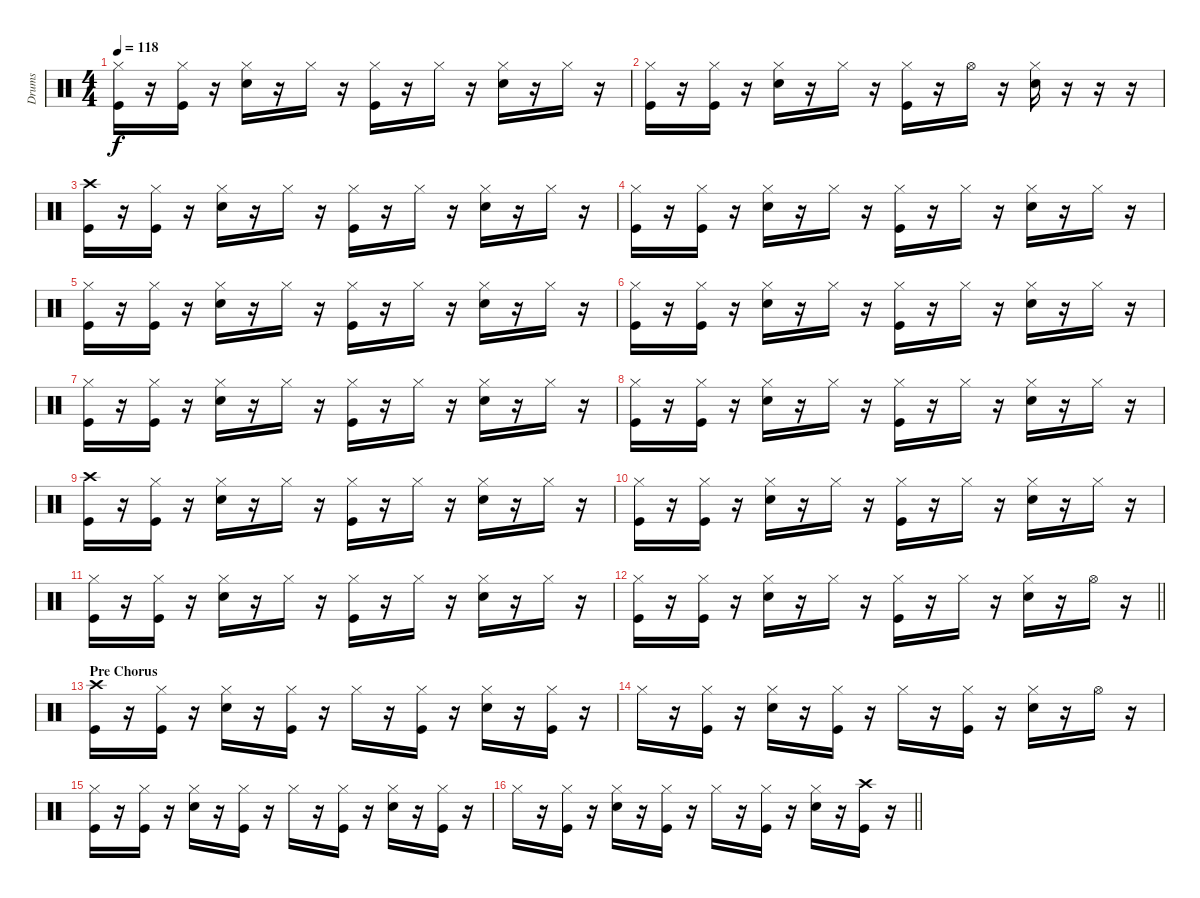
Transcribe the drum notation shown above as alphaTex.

\track ("Drums" "Drums") {instrument percussion}
\staff {score}
\articulation defaults
\ts (4 4)
\tempo 118
\clef neutral
\ks c
("Hi-Hat (closed)" "Kick (hit)").16{dy f} r.16 ("Hi-Hat (closed)" "Kick (hit)").16 r.16 ("Hi-Hat (closed)" "Snare (hit) 2").16 r.16 "Hi-Hat (closed)".16 r.16 ("Hi-Hat (closed)" "Kick (hit)").16 r.16 "Hi-Hat (closed)".16 r.16 ("Hi-Hat (closed)" "Snare (hit) 2").16 r.16 "Hi-Hat (closed)".16 r.16 |
("Hi-Hat (closed)" "Kick (hit)").16 r.16 ("Hi-Hat (closed)" "Kick (hit)").16 r.16 ("Hi-Hat (closed)" "Snare (hit) 2").16 r.16 "Hi-Hat (closed)".16 r.16 ("Hi-Hat (closed)" "Kick (hit)").16 r.16 "Hi-Hat (open)".16 r.16 ("Hi-Hat (closed)" "Snare (hit) 2").16 r.16 r.16 r.16 |
("Crash high (hit)" "Kick (hit)").16 r.16 ("Hi-Hat (closed)" "Kick (hit)").16 r.16 ("Hi-Hat (closed)" "Snare (hit) 2").16 r.16 "Hi-Hat (closed)".16 r.16 ("Hi-Hat (closed)" "Kick (hit)").16 r.16 "Hi-Hat (closed)".16 r.16 ("Hi-Hat (closed)" "Snare (hit) 2").16 r.16 "Hi-Hat (closed)".16 r.16 |
("Hi-Hat (closed)" "Kick (hit)").16 r.16 ("Hi-Hat (closed)" "Kick (hit)").16 r.16 ("Hi-Hat (closed)" "Snare (hit) 2").16 r.16 "Hi-Hat (closed)".16 r.16 ("Hi-Hat (closed)" "Kick (hit)").16 r.16 "Hi-Hat (closed)".16 r.16 ("Hi-Hat (closed)" "Snare (hit) 2").16 r.16 "Hi-Hat (closed)".16 r.16 |
("Hi-Hat (closed)" "Kick (hit)").16 r.16 ("Hi-Hat (closed)" "Kick (hit)").16 r.16 ("Hi-Hat (closed)" "Snare (hit) 2").16 r.16 "Hi-Hat (closed)".16 r.16 ("Hi-Hat (closed)" "Kick (hit)").16 r.16 "Hi-Hat (closed)".16 r.16 ("Hi-Hat (closed)" "Snare (hit) 2").16 r.16 "Hi-Hat (closed)".16 r.16 |
("Hi-Hat (closed)" "Kick (hit)").16 r.16 ("Hi-Hat (closed)" "Kick (hit)").16 r.16 ("Hi-Hat (closed)" "Snare (hit) 2").16 r.16 "Hi-Hat (closed)".16 r.16 ("Hi-Hat (closed)" "Kick (hit)").16 r.16 "Hi-Hat (closed)".16 r.16 ("Hi-Hat (closed)" "Snare (hit) 2").16 r.16 "Hi-Hat (closed)".16 r.16 |
("Hi-Hat (closed)" "Kick (hit)").16 r.16 ("Hi-Hat (closed)" "Kick (hit)").16 r.16 ("Hi-Hat (closed)" "Snare (hit) 2").16 r.16 "Hi-Hat (closed)".16 r.16 ("Hi-Hat (closed)" "Kick (hit)").16 r.16 "Hi-Hat (closed)".16 r.16 ("Hi-Hat (closed)" "Snare (hit) 2").16 r.16 "Hi-Hat (closed)".16 r.16 |
("Hi-Hat (closed)" "Kick (hit)").16 r.16 ("Hi-Hat (closed)" "Kick (hit)").16 r.16 ("Hi-Hat (closed)" "Snare (hit) 2").16 r.16 "Hi-Hat (closed)".16 r.16 ("Hi-Hat (closed)" "Kick (hit)").16 r.16 "Hi-Hat (closed)".16 r.16 ("Hi-Hat (closed)" "Snare (hit) 2").16 r.16 "Hi-Hat (closed)".16 r.16 |
("Crash high (hit)" "Kick (hit)").16 r.16 ("Hi-Hat (closed)" "Kick (hit)").16 r.16 ("Hi-Hat (closed)" "Snare (hit) 2").16 r.16 "Hi-Hat (closed)".16 r.16 ("Hi-Hat (closed)" "Kick (hit)").16 r.16 "Hi-Hat (closed)".16 r.16 ("Hi-Hat (closed)" "Snare (hit) 2").16 r.16 "Hi-Hat (closed)".16 r.16 |
("Hi-Hat (closed)" "Kick (hit)").16 r.16 ("Hi-Hat (closed)" "Kick (hit)").16 r.16 ("Hi-Hat (closed)" "Snare (hit) 2").16 r.16 "Hi-Hat (closed)".16 r.16 ("Hi-Hat (closed)" "Kick (hit)").16 r.16 "Hi-Hat (closed)".16 r.16 ("Hi-Hat (closed)" "Snare (hit) 2").16 r.16 "Hi-Hat (closed)".16 r.16 |
("Hi-Hat (closed)" "Kick (hit)").16 r.16 ("Hi-Hat (closed)" "Kick (hit)").16 r.16 ("Hi-Hat (closed)" "Snare (hit) 2").16 r.16 "Hi-Hat (closed)".16 r.16 ("Hi-Hat (closed)" "Kick (hit)").16 r.16 "Hi-Hat (closed)".16 r.16 ("Hi-Hat (closed)" "Snare (hit) 2").16 r.16 "Hi-Hat (closed)".16 r.16 |
\barLineRight lightlight
("Hi-Hat (closed)" "Kick (hit)").16 r.16 ("Hi-Hat (closed)" "Kick (hit)").16 r.16 ("Hi-Hat (closed)" "Snare (hit) 2").16 r.16 "Hi-Hat (closed)".16 r.16 ("Hi-Hat (closed)" "Kick (hit)").16 r.16 "Hi-Hat (closed)".16 r.16 ("Hi-Hat (closed)" "Snare (hit) 2").16 r.16 "Hi-Hat (open)".16 r.16 |
\section ("" "Pre Chorus")
("Crash high (hit)" "Kick (hit)").16 r.16 ("Hi-Hat (closed)" "Kick (hit)").16 r.16 ("Hi-Hat (closed)" "Snare (hit) 2").16 r.16 ("Hi-Hat (closed)" "Kick (hit)").16 r.16 "Hi-Hat (closed)".16 r.16 ("Hi-Hat (closed)" "Kick (hit)").16 r.16 ("Hi-Hat (closed)" "Snare (hit) 2").16 r.16 ("Hi-Hat (closed)" "Kick (hit)").16 r.16 |
"Hi-Hat (closed)".16 r.16 ("Hi-Hat (closed)" "Kick (hit)").16 r.16 ("Hi-Hat (closed)" "Snare (hit) 2").16 r.16 ("Hi-Hat (closed)" "Kick (hit)").16 r.16 "Hi-Hat (closed)".16 r.16 ("Hi-Hat (closed)" "Kick (hit)").16 r.16 ("Hi-Hat (closed)" "Snare (hit) 2").16 r.16 "Hi-Hat (open)".16 r.16 |
("Hi-Hat (closed)" "Kick (hit)").16 r.16 ("Hi-Hat (closed)" "Kick (hit)").16 r.16 ("Hi-Hat (closed)" "Snare (hit) 2").16 r.16 ("Hi-Hat (closed)" "Kick (hit)").16 r.16 "Hi-Hat (closed)".16 r.16 ("Hi-Hat (closed)" "Kick (hit)").16 r.16 ("Hi-Hat (closed)" "Snare (hit) 2").16 r.16 ("Hi-Hat (closed)" "Kick (hit)").16 r.16 |
\barLineRight lightlight "Hi-Hat (closed)".16
r.16 ("Hi-Hat (closed)" "Kick (hit)").16 r.16 ("Hi-Hat (closed)" "Snare (hit) 2").16 r.16 ("Hi-Hat (closed)" "Kick (hit)").16 r.16 "Hi-Hat (closed)".16 r.16 ("Hi-Hat (closed)" "Kick (hit)").16 r.16 ("Hi-Hat (closed)" "Snare (hit) 2").16 r.16 ("Crash high (hit)" "Kick (hit)").16 r.16
